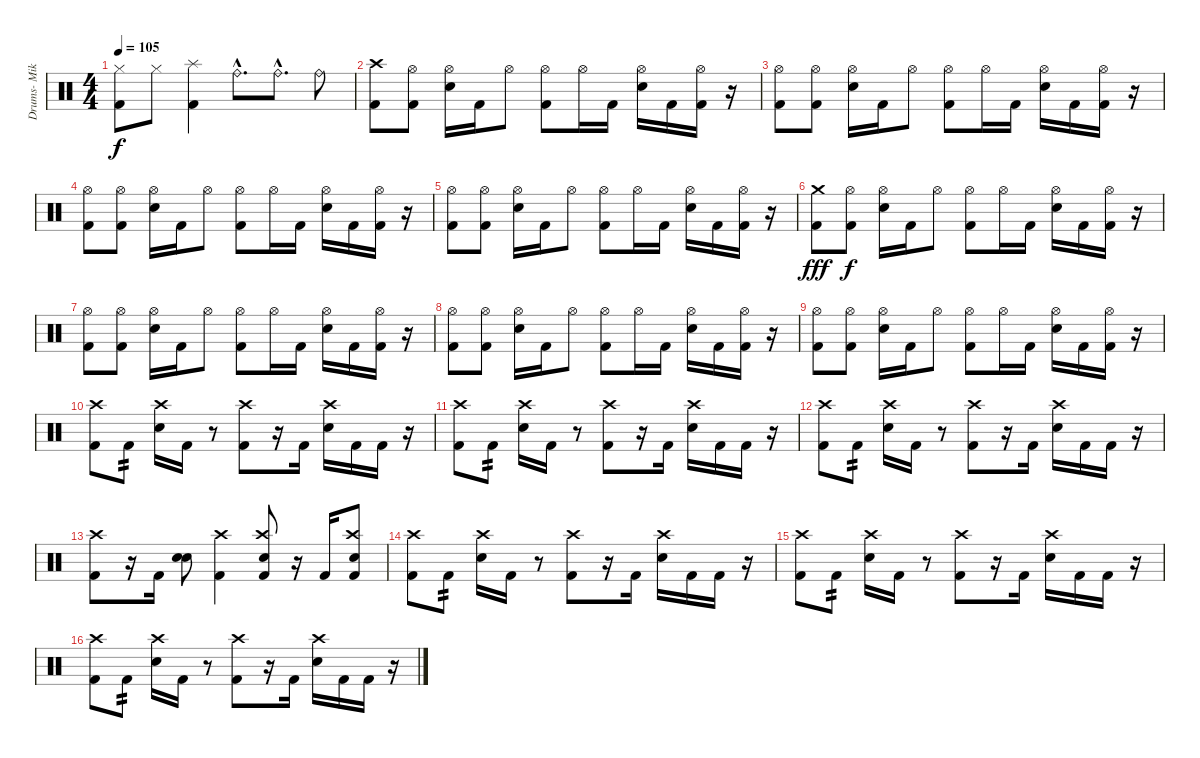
\track ("Drums- Mike " "Drums- Mik") {instrument percussion}
\staff {score}
\articulation defaults
\ts (4 4)
\tempo 105
\clef neutral
\ks c
("Hi-Hat (closed)" "Kick (hit) 2").8{dy f} "Hi-Hat (closed)".8 ("Splash (hit)" "Kick (hit) 2").4 "Ride (bell)"{hac}.8{d} "Ride (bell)"{hac}.8{d} "Ride (bell)".8 |
("Crash high (hit)" "Kick (hit) 2").8 ("Hi-Hat (open)" "Kick (hit) 2").8 ("Hi-Hat (open)" "Snare (hit) 2").16 "Kick (hit) 2".16 "Hi-Hat (open)".8 ("Hi-Hat (open)" "Kick (hit) 2").8 "Hi-Hat (open)".16 "Kick (hit) 2".16 ("Hi-Hat (open)" "Snare (hit) 2").16 "Kick (hit) 2".16 ("Hi-Hat (open)" "Kick (hit) 2").16 r.16 |
("Hi-Hat (open)" "Kick (hit) 2").8 ("Hi-Hat (open)" "Kick (hit) 2").8 ("Hi-Hat (open)" "Snare (hit) 2").16 "Kick (hit) 2".16 "Hi-Hat (open)".8 ("Hi-Hat (open)" "Kick (hit) 2").8 "Hi-Hat (open)".16 "Kick (hit) 2".16 ("Hi-Hat (open)" "Snare (hit) 2").16 "Kick (hit) 2".16 ("Hi-Hat (open)" "Kick (hit) 2").16 r.16 |
("Hi-Hat (open)" "Kick (hit) 2").8 ("Hi-Hat (open)" "Kick (hit) 2").8 ("Hi-Hat (open)" "Snare (hit) 2").16 "Kick (hit) 2".16 "Hi-Hat (open)".8 ("Hi-Hat (open)" "Kick (hit) 2").8 "Hi-Hat (open)".16 "Kick (hit) 2".16 ("Hi-Hat (open)" "Snare (hit) 2").16 "Kick (hit) 2".16 ("Hi-Hat (open)" "Kick (hit) 2").16 r.16 |
("Hi-Hat (open)" "Kick (hit) 2").8 ("Hi-Hat (open)" "Kick (hit) 2").8 ("Hi-Hat (open)" "Snare (hit) 2").16 "Kick (hit) 2".16 "Hi-Hat (open)".8 ("Hi-Hat (open)" "Kick (hit) 2").8 "Hi-Hat (open)".16 "Kick (hit) 2".16 ("Hi-Hat (open)" "Snare (hit) 2").16 "Kick (hit) 2".16 ("Hi-Hat (open)" "Kick (hit) 2").16 r.16 |
("Crash medium (hit)" "Kick (hit) 2").8{dy fff} ("Hi-Hat (open)" "Kick (hit) 2").8{dy f} ("Hi-Hat (open)" "Snare (hit) 2").16 "Kick (hit) 2".16 "Hi-Hat (open)".8 ("Hi-Hat (open)" "Kick (hit) 2").8 "Hi-Hat (open)".16 "Kick (hit) 2".16 ("Hi-Hat (open)" "Snare (hit) 2").16 "Kick (hit) 2".16 ("Hi-Hat (open)" "Kick (hit) 2").16 r.16 |
("Hi-Hat (open)" "Kick (hit) 2").8 ("Hi-Hat (open)" "Kick (hit) 2").8 ("Hi-Hat (open)" "Snare (hit) 2").16 "Kick (hit) 2".16 "Hi-Hat (open)".8 ("Hi-Hat (open)" "Kick (hit) 2").8 "Hi-Hat (open)".16 "Kick (hit) 2".16 ("Hi-Hat (open)" "Snare (hit) 2").16 "Kick (hit) 2".16 ("Hi-Hat (open)" "Kick (hit) 2").16 r.16 |
("Hi-Hat (open)" "Kick (hit) 2").8 ("Hi-Hat (open)" "Kick (hit) 2").8 ("Hi-Hat (open)" "Snare (hit) 2").16 "Kick (hit) 2".16 "Hi-Hat (open)".8 ("Hi-Hat (open)" "Kick (hit) 2").8 "Hi-Hat (open)".16 "Kick (hit) 2".16 ("Hi-Hat (open)" "Snare (hit) 2").16 "Kick (hit) 2".16 ("Hi-Hat (open)" "Kick (hit) 2").16 r.16 |
("Hi-Hat (open)" "Kick (hit) 2").8 ("Hi-Hat (open)" "Kick (hit) 2").8 ("Hi-Hat (open)" "Snare (hit) 2").16 "Kick (hit) 2".16 "Hi-Hat (open)".8 ("Hi-Hat (open)" "Kick (hit) 2").8 "Hi-Hat (open)".16 "Kick (hit) 2".16 ("Hi-Hat (open)" "Snare (hit) 2").16 "Kick (hit) 2".16 ("Hi-Hat (open)" "Kick (hit) 2").16 r.16 |
("Crash high (hit)" "Kick (hit) 2").8 "Kick (hit) 2".8{tp 2} ("Crash high (hit)" "Snare (hit) 2").16 "Kick (hit) 2".16 r.8 ("Crash high (hit)" "Kick (hit) 2").8 r.16 "Kick (hit) 2".16 ("Crash high (hit)" "Snare (hit) 2").16 "Kick (hit) 2".16 "Kick (hit) 2".16 r.16 |
("Crash high (hit)" "Kick (hit) 2").8 "Kick (hit) 2".8{tp 2} ("Crash high (hit)" "Snare (hit) 2").16 "Kick (hit) 2".16 r.8 ("Crash high (hit)" "Kick (hit) 2").8 r.16 "Kick (hit) 2".16 ("Crash high (hit)" "Snare (hit) 2").16 "Kick (hit) 2".16 "Kick (hit) 2".16 r.16 |
("Crash high (hit)" "Kick (hit) 2").8 "Kick (hit) 2".8{tp 2} ("Crash high (hit)" "Snare (hit) 2").16 "Kick (hit) 2".16 r.8 ("Crash high (hit)" "Kick (hit) 2").8 r.16 "Kick (hit) 2".16 ("Crash high (hit)" "Snare (hit) 2").16 "Kick (hit) 2".16 "Kick (hit) 2".16 r.16 |
("Crash high (hit)" "Kick (hit) 2").8 r.16 "Kick (hit) 2".16 ("Snare (hit) 2" "Snare (hit) 2").8 ("Crash high (hit)" "Kick (hit) 2").4 ("Crash high (hit)" "Snare (hit) 2" "Kick (hit) 2").8 r.16 "Kick (hit) 2".16 ("Crash high (hit)" "Snare (hit) 2" "Kick (hit) 2").8 |
("Crash high (hit)" "Kick (hit) 2").8 "Kick (hit) 2".8{tp 2} ("Crash high (hit)" "Snare (hit) 2").16 "Kick (hit) 2".16 r.8 ("Crash high (hit)" "Kick (hit) 2").8 r.16 "Kick (hit) 2".16 ("Crash high (hit)" "Snare (hit) 2").16 "Kick (hit) 2".16 "Kick (hit) 2".16 r.16 |
("Crash high (hit)" "Kick (hit) 2").8 "Kick (hit) 2".8{tp 2} ("Crash high (hit)" "Snare (hit) 2").16 "Kick (hit) 2".16 r.8 ("Crash high (hit)" "Kick (hit) 2").8 r.16 "Kick (hit) 2".16 ("Crash high (hit)" "Snare (hit) 2").16 "Kick (hit) 2".16 "Kick (hit) 2".16 r.16 |
("Crash high (hit)" "Kick (hit) 2").8 "Kick (hit) 2".8{tp 2} ("Crash high (hit)" "Snare (hit) 2").16 "Kick (hit) 2".16 r.8 ("Crash high (hit)" "Kick (hit) 2").8 r.16 "Kick (hit) 2".16 ("Crash high (hit)" "Snare (hit) 2").16 "Kick (hit) 2".16 "Kick (hit) 2".16 r.16
